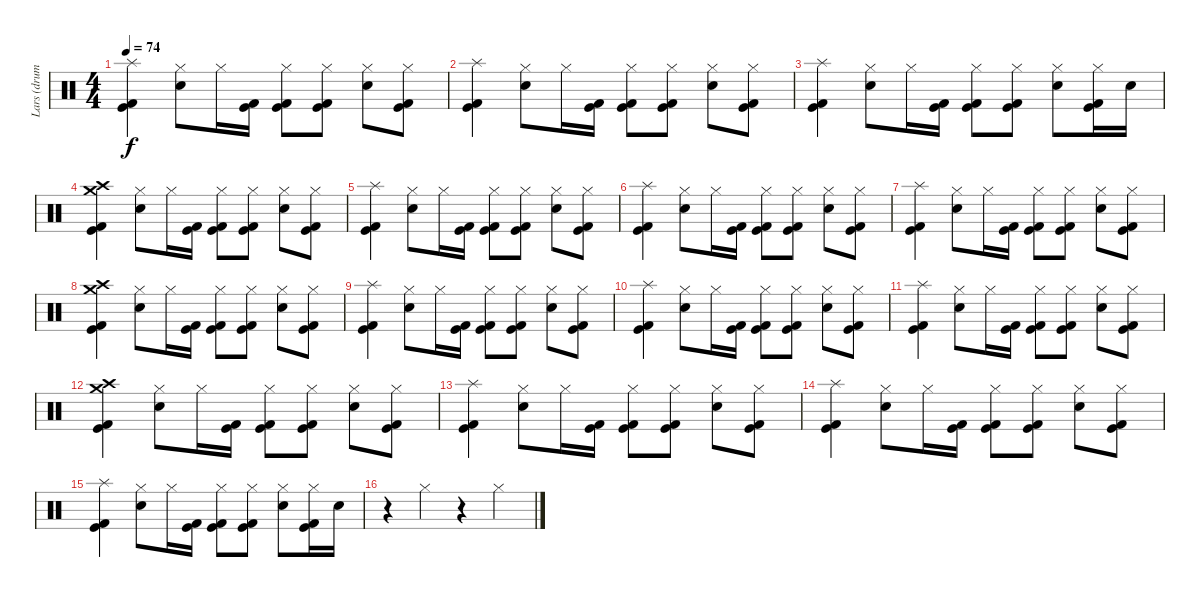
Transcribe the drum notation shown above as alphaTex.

\track ("Lars (drums)" "Lars (drum") {instrument percussion}
\staff {score}
\articulation defaults
\ts (4 4)
\tempo 74
\clef neutral
\ks c
("Splash (hit)" "Kick (hit) 2" "Kick (hit)").4{dy f} ("Hi-Hat (closed)" "Electric Snare (hit)").8 "Hi-Hat (closed)".16 ("Kick (hit) 2" "Kick (hit)").16 ("Hi-Hat (closed)" "Kick (hit) 2" "Kick (hit)").8 ("Hi-Hat (closed)" "Kick (hit)" "Kick (hit) 2").8 ("Hi-Hat (closed)" "Electric Snare (hit)").8 ("Hi-Hat (closed)" "Kick (hit) 2" "Kick (hit)").8 |
("Splash (hit)" "Kick (hit) 2" "Kick (hit)").4 ("Hi-Hat (closed)" "Electric Snare (hit)").8 "Hi-Hat (closed)".16 ("Kick (hit) 2" "Kick (hit)").16 ("Hi-Hat (closed)" "Kick (hit) 2" "Kick (hit)").8 ("Hi-Hat (closed)" "Kick (hit)" "Kick (hit) 2").8 ("Hi-Hat (closed)" "Electric Snare (hit)").8 ("Hi-Hat (closed)" "Kick (hit) 2" "Kick (hit)").8 |
("Splash (hit)" "Kick (hit) 2" "Kick (hit)").4 ("Hi-Hat (closed)" "Electric Snare (hit)").8 "Hi-Hat (closed)".16 ("Kick (hit) 2" "Kick (hit)").16 ("Hi-Hat (closed)" "Kick (hit) 2" "Kick (hit)").8 ("Hi-Hat (closed)" "Kick (hit)" "Kick (hit) 2").8 ("Hi-Hat (closed)" "Electric Snare (hit)").8 ("Hi-Hat (closed)" "Kick (hit) 2" "Kick (hit)").16 "Electric Snare (hit)".16 |
("Crash medium (hit)" "Crash high (hit)" "Kick (hit) 2" "Kick (hit)").4 ("Hi-Hat (closed)" "Electric Snare (hit)").8 "Hi-Hat (closed)".16 ("Kick (hit) 2" "Kick (hit)").16 ("Hi-Hat (closed)" "Kick (hit) 2" "Kick (hit)").8 ("Hi-Hat (closed)" "Kick (hit)" "Kick (hit) 2").8 ("Hi-Hat (closed)" "Electric Snare (hit)").8 ("Hi-Hat (closed)" "Kick (hit) 2" "Kick (hit)").8 |
("Splash (hit)" "Kick (hit) 2" "Kick (hit)").4 ("Hi-Hat (closed)" "Electric Snare (hit)").8 "Hi-Hat (closed)".16 ("Kick (hit) 2" "Kick (hit)").16 ("Hi-Hat (closed)" "Kick (hit) 2" "Kick (hit)").8 ("Hi-Hat (closed)" "Kick (hit)" "Kick (hit) 2").8 ("Hi-Hat (closed)" "Electric Snare (hit)").8 ("Hi-Hat (closed)" "Kick (hit) 2" "Kick (hit)").8 |
("Splash (hit)" "Kick (hit) 2" "Kick (hit)").4 ("Hi-Hat (closed)" "Electric Snare (hit)").8 "Hi-Hat (closed)".16 ("Kick (hit) 2" "Kick (hit)").16 ("Hi-Hat (closed)" "Kick (hit) 2" "Kick (hit)").8 ("Hi-Hat (closed)" "Kick (hit)" "Kick (hit) 2").8 ("Hi-Hat (closed)" "Electric Snare (hit)").8 ("Hi-Hat (closed)" "Kick (hit) 2" "Kick (hit)").8 |
("Splash (hit)" "Kick (hit) 2" "Kick (hit)").4 ("Hi-Hat (closed)" "Electric Snare (hit)").8 "Hi-Hat (closed)".16 ("Kick (hit) 2" "Kick (hit)").16 ("Hi-Hat (closed)" "Kick (hit) 2" "Kick (hit)").8 ("Hi-Hat (closed)" "Kick (hit)" "Kick (hit) 2").8 ("Hi-Hat (closed)" "Electric Snare (hit)").8 ("Hi-Hat (closed)" "Kick (hit) 2" "Kick (hit)").8 |
("Crash medium (hit)" "Crash high (hit)" "Kick (hit) 2" "Kick (hit)").4 ("Hi-Hat (closed)" "Electric Snare (hit)").8 "Hi-Hat (closed)".16 ("Kick (hit) 2" "Kick (hit)").16 ("Hi-Hat (closed)" "Kick (hit) 2" "Kick (hit)").8 ("Hi-Hat (closed)" "Kick (hit)" "Kick (hit) 2").8 ("Hi-Hat (closed)" "Electric Snare (hit)").8 ("Hi-Hat (closed)" "Kick (hit) 2" "Kick (hit)").8 |
("Splash (hit)" "Kick (hit) 2" "Kick (hit)").4 ("Hi-Hat (closed)" "Electric Snare (hit)").8 "Hi-Hat (closed)".16 ("Kick (hit) 2" "Kick (hit)").16 ("Hi-Hat (closed)" "Kick (hit) 2" "Kick (hit)").8 ("Hi-Hat (closed)" "Kick (hit)" "Kick (hit) 2").8 ("Hi-Hat (closed)" "Electric Snare (hit)").8 ("Hi-Hat (closed)" "Kick (hit) 2" "Kick (hit)").8 |
("Splash (hit)" "Kick (hit) 2" "Kick (hit)").4 ("Hi-Hat (closed)" "Electric Snare (hit)").8 "Hi-Hat (closed)".16 ("Kick (hit) 2" "Kick (hit)").16 ("Hi-Hat (closed)" "Kick (hit) 2" "Kick (hit)").8 ("Hi-Hat (closed)" "Kick (hit)" "Kick (hit) 2").8 ("Hi-Hat (closed)" "Electric Snare (hit)").8 ("Hi-Hat (closed)" "Kick (hit) 2" "Kick (hit)").8 |
("Splash (hit)" "Kick (hit) 2" "Kick (hit)").4 ("Hi-Hat (closed)" "Electric Snare (hit)").8 "Hi-Hat (closed)".16 ("Kick (hit) 2" "Kick (hit)").16 ("Hi-Hat (closed)" "Kick (hit) 2" "Kick (hit)").8 ("Hi-Hat (closed)" "Kick (hit)" "Kick (hit) 2").8 ("Hi-Hat (closed)" "Electric Snare (hit)").8 ("Hi-Hat (closed)" "Kick (hit) 2" "Kick (hit)").8 |
("Crash medium (hit)" "Crash high (hit)" "Kick (hit) 2" "Kick (hit)").4 ("Hi-Hat (closed)" "Electric Snare (hit)").8 "Hi-Hat (closed)".16 ("Kick (hit) 2" "Kick (hit)").16 ("Hi-Hat (closed)" "Kick (hit) 2" "Kick (hit)").8 ("Hi-Hat (closed)" "Kick (hit)" "Kick (hit) 2").8 ("Hi-Hat (closed)" "Electric Snare (hit)").8 ("Hi-Hat (closed)" "Kick (hit) 2" "Kick (hit)").8 |
("Splash (hit)" "Kick (hit) 2" "Kick (hit)").4 ("Hi-Hat (closed)" "Electric Snare (hit)").8 "Hi-Hat (closed)".16 ("Kick (hit) 2" "Kick (hit)").16 ("Hi-Hat (closed)" "Kick (hit) 2" "Kick (hit)").8 ("Hi-Hat (closed)" "Kick (hit)" "Kick (hit) 2").8 ("Hi-Hat (closed)" "Electric Snare (hit)").8 ("Hi-Hat (closed)" "Kick (hit) 2" "Kick (hit)").8 |
("Splash (hit)" "Kick (hit) 2" "Kick (hit)").4 ("Hi-Hat (closed)" "Electric Snare (hit)").8 "Hi-Hat (closed)".16 ("Kick (hit) 2" "Kick (hit)").16 ("Hi-Hat (closed)" "Kick (hit) 2" "Kick (hit)").8 ("Hi-Hat (closed)" "Kick (hit)" "Kick (hit) 2").8 ("Hi-Hat (closed)" "Electric Snare (hit)").8 ("Hi-Hat (closed)" "Kick (hit) 2" "Kick (hit)").8 |
("Splash (hit)" "Kick (hit) 2" "Kick (hit)").4 ("Hi-Hat (closed)" "Electric Snare (hit)").8 "Hi-Hat (closed)".16 ("Kick (hit) 2" "Kick (hit)").16 ("Hi-Hat (closed)" "Kick (hit) 2" "Kick (hit)").8 ("Hi-Hat (closed)" "Kick (hit)" "Kick (hit) 2").8 ("Hi-Hat (closed)" "Electric Snare (hit)").8 ("Hi-Hat (closed)" "Kick (hit) 2" "Kick (hit)").16 "Electric Snare (hit)".16 |
r.4 "Hi-Hat (closed)".4 r.4 "Hi-Hat (closed)".4
